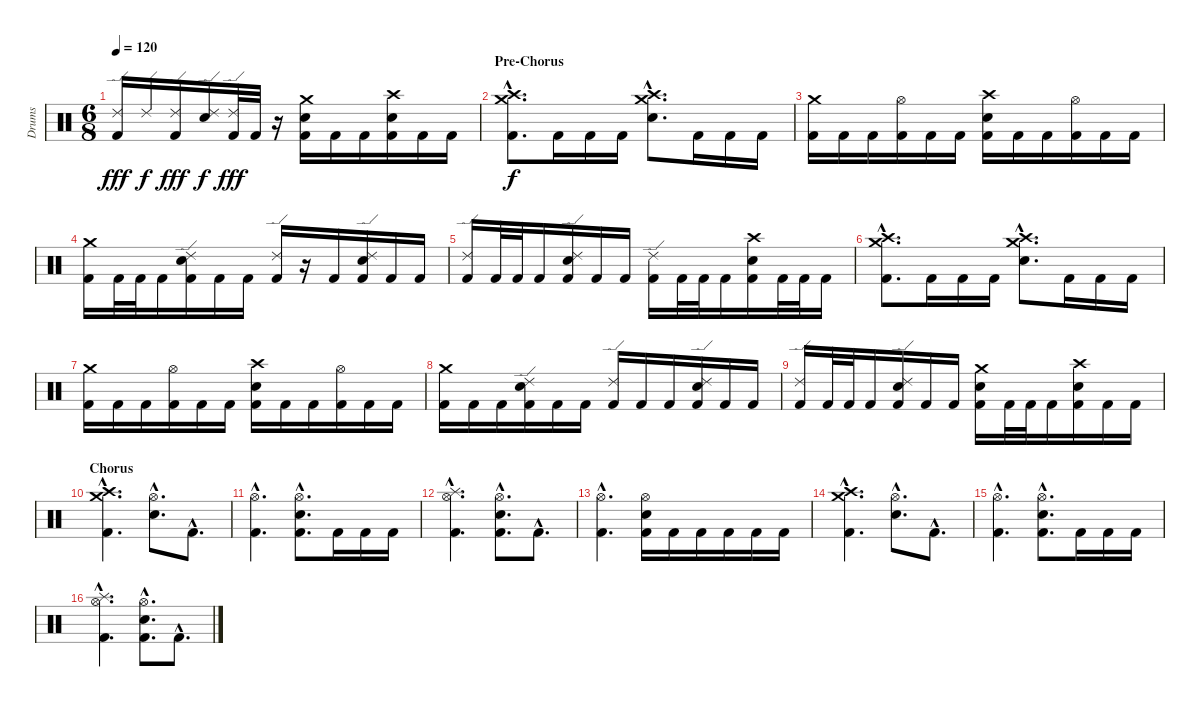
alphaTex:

\track ("Drums" "Drums") {instrument percussion}
\staff {score}
\articulation defaults
\ts (6 8)
\tempo 120
\clef neutral
\ks c
("Ride (edge) 2" "Kick (hit) 2").16{dy fff} "Ride (edge) 2".16{dy f} ("Ride (edge) 2" "Kick (hit) 2").16{dy fff} ("Ride (edge) 2" "Snare (hit) 2").16{dy f} ("Ride (edge) 2" "Kick (hit) 2").32{dy fff} "Kick (hit) 2".32 r.16 ("Crash medium (hit)" "Snare (hit) 2" "Kick (hit) 2").16 "Kick (hit) 2".16 "Kick (hit) 2".16 ("Crash high (hit)" "Snare (hit) 2" "Kick (hit) 2").16 "Kick (hit) 2".16 "Kick (hit) 2".16 |
\section ("" "Pre-Chorus")
("Crash medium (hit)"{hac} "Crash high (hit)"{hac} "Kick (hit) 2"{hac}).8{d dy f} "Kick (hit) 2".16 "Kick (hit) 2".16 "Kick (hit) 2".16 ("Crash high (hit)"{hac} "Crash medium (hit)"{hac} "Snare (hit) 2"{hac}).8{d} "Kick (hit) 2".16 "Kick (hit) 2".16 "Kick (hit) 2".16 |
("Crash medium (hit)" "Kick (hit) 2").16 "Kick (hit) 2".16 "Kick (hit) 2".16 ("Hi-Hat (open)" "Kick (hit) 2").16 "Kick (hit) 2".16 "Kick (hit) 2".16 ("Crash high (hit)" "Snare (hit) 2" "Kick (hit) 2").16 "Kick (hit) 2".16 "Kick (hit) 2".16 ("Hi-Hat (open)" "Kick (hit) 2").16 "Kick (hit) 2".16 "Kick (hit) 2".16 |
("Crash medium (hit)" "Kick (hit) 2").16 "Kick (hit) 2".32 "Kick (hit) 2".32 "Kick (hit) 2".16 ("Ride (edge) 2" "Snare (hit) 2" "Kick (hit) 2").16 "Kick (hit) 2".16 "Kick (hit) 2".16 ("Ride (edge) 2" "Kick (hit) 2").16 r.16 "Kick (hit) 2".16 ("Ride (edge) 2" "Snare (hit) 2" "Kick (hit) 2").16 "Kick (hit) 2".16 "Kick (hit) 2".16 |
("Ride (edge) 2" "Kick (hit) 2").16 "Kick (hit) 2".32 "Kick (hit) 2".32 "Kick (hit) 2".16 ("Ride (edge) 2" "Snare (hit) 2" "Kick (hit) 2").16 "Kick (hit) 2".16 "Kick (hit) 2".16 ("Ride (edge) 2" "Kick (hit) 2").16 "Kick (hit) 2".32 "Kick (hit) 2".32 "Kick (hit) 2".16 ("Crash high (hit)" "Snare (hit) 2" "Kick (hit) 2").16 "Kick (hit) 2".32 "Kick (hit) 2".32 "Kick (hit) 2".16 |
("Crash medium (hit)"{hac} "Crash high (hit)"{hac} "Kick (hit) 2"{hac}).8{d} "Kick (hit) 2".16 "Kick (hit) 2".16 "Kick (hit) 2".16 ("Crash high (hit)"{hac} "Crash medium (hit)"{hac} "Snare (hit) 2"{hac}).8{d} "Kick (hit) 2".16 "Kick (hit) 2".16 "Kick (hit) 2".16 |
("Crash medium (hit)" "Kick (hit) 2").16 "Kick (hit) 2".16 "Kick (hit) 2".16 ("Hi-Hat (open)" "Kick (hit) 2").16 "Kick (hit) 2".16 "Kick (hit) 2".16 ("Crash high (hit)" "Snare (hit) 2" "Kick (hit) 2").16 "Kick (hit) 2".16 "Kick (hit) 2".16 ("Hi-Hat (open)" "Kick (hit) 2").16 "Kick (hit) 2".16 "Kick (hit) 2".16 |
("Crash medium (hit)" "Kick (hit) 2").16 "Kick (hit) 2".16 "Kick (hit) 2".16 ("Ride (edge) 2" "Snare (hit) 2" "Kick (hit) 2").16 "Kick (hit) 2".16 "Kick (hit) 2".16 ("Ride (edge) 2" "Kick (hit) 2").16 "Kick (hit) 2".16 "Kick (hit) 2".16 ("Ride (edge) 2" "Snare (hit) 2" "Kick (hit) 2").16 "Kick (hit) 2".16 "Kick (hit) 2".16 |
("Ride (edge) 2" "Kick (hit) 2").16 "Kick (hit) 2".32 "Kick (hit) 2".32 "Kick (hit) 2".16 ("Ride (edge) 2" "Snare (hit) 2" "Kick (hit) 2").16 "Kick (hit) 2".16 "Kick (hit) 2".16 ("Crash medium (hit)" "Snare (hit) 2" "Kick (hit) 2").16 "Kick (hit) 2".32 "Kick (hit) 2".32 "Kick (hit) 2".16 ("Crash high (hit)" "Snare (hit) 2" "Kick (hit) 2").16 "Kick (hit) 2".16 "Kick (hit) 2".16 |
\section ("" "Chorus")
("Crash medium (hit)"{hac} "Crash high (hit)"{hac} "Kick (hit) 2"{hac}).4{d} ("Hi-Hat (open)"{hac} "Snare (hit) 2"{hac}).8{d} "Kick (hit) 2"{hac}.8{d} |
("Hi-Hat (open)"{hac} "Kick (hit) 2"{hac}).4{d} ("Hi-Hat (open)"{hac} "Snare (hit) 2"{hac} "Kick (hit) 2"{hac}).8{d} "Kick (hit) 2".16 "Kick (hit) 2".16 "Kick (hit) 2".16 |
("Hi-Hat (open)"{hac} "Splash (hit)"{hac} "Kick (hit) 2"{hac}).4{d} ("Hi-Hat (open)"{hac} "Snare (hit) 2"{hac} "Kick (hit) 2"{hac}).8{d} "Kick (hit) 2"{hac}.8{d} |
("Hi-Hat (open)"{hac} "Kick (hit) 2"{hac}).4{d} ("Hi-Hat (open)" "Snare (hit) 2" "Kick (hit) 2").16 "Kick (hit) 2".16 "Kick (hit) 2".16 "Kick (hit) 2".16 "Kick (hit) 2".16 "Kick (hit) 2".16 |
("Crash medium (hit)"{hac} "Crash high (hit)"{hac} "Kick (hit) 2"{hac}).4{d} ("Hi-Hat (open)"{hac} "Snare (hit) 2"{hac}).8{d} "Kick (hit) 2"{hac}.8{d} |
("Hi-Hat (open)"{hac} "Kick (hit) 2"{hac}).4{d} ("Hi-Hat (open)"{hac} "Snare (hit) 2"{hac} "Kick (hit) 2"{hac}).8{d} "Kick (hit) 2".16 "Kick (hit) 2".16 "Kick (hit) 2".16 |
("Hi-Hat (open)"{hac} "Splash (hit)"{hac} "Kick (hit) 2"{hac}).4{d} ("Hi-Hat (open)"{hac} "Snare (hit) 2"{hac} "Kick (hit) 2"{hac}).8{d} "Kick (hit) 2"{hac}.8{d}
